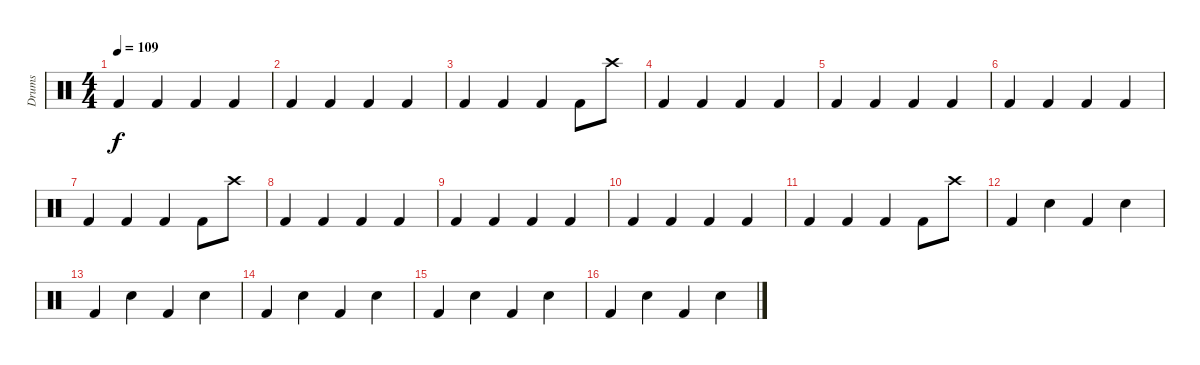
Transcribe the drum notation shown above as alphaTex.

\track ("Drums" "Drums") {instrument percussion}
\staff {score}
\articulation defaults
\ts (4 4)
\tempo 109
\clef neutral
\ks c "Kick (hit) 2".4{dy f} "Kick (hit) 2".4 "Kick (hit) 2".4 "Kick (hit) 2".4
|
"Kick (hit) 2".4 "Kick (hit) 2".4 "Kick (hit) 2".4 "Kick (hit) 2".4 |
"Kick (hit) 2".4 "Kick (hit) 2".4 "Kick (hit) 2".4 "Kick (hit) 2".8 "Crash high (hit)".8 |
"Kick (hit) 2".4 "Kick (hit) 2".4 "Kick (hit) 2".4 "Kick (hit) 2".4 |
"Kick (hit) 2".4 "Kick (hit) 2".4 "Kick (hit) 2".4 "Kick (hit) 2".4 |
"Kick (hit) 2".4 "Kick (hit) 2".4 "Kick (hit) 2".4 "Kick (hit) 2".4 |
"Kick (hit) 2".4 "Kick (hit) 2".4 "Kick (hit) 2".4 "Kick (hit) 2".8 "Crash high (hit)".8 |
"Kick (hit) 2".4 "Kick (hit) 2".4 "Kick (hit) 2".4 "Kick (hit) 2".4 |
"Kick (hit) 2".4 "Kick (hit) 2".4 "Kick (hit) 2".4 "Kick (hit) 2".4 |
"Kick (hit) 2".4 "Kick (hit) 2".4 "Kick (hit) 2".4 "Kick (hit) 2".4 |
"Kick (hit) 2".4 "Kick (hit) 2".4 "Kick (hit) 2".4 "Kick (hit) 2".8 "Crash high (hit)".8 |
"Kick (hit) 2".4 "Snare (hit) 2".4 "Kick (hit) 2".4 "Snare (hit) 2".4 |
"Kick (hit) 2".4 "Snare (hit) 2".4 "Kick (hit) 2".4 "Snare (hit) 2".4 |
"Kick (hit) 2".4 "Snare (hit) 2".4 "Kick (hit) 2".4 "Snare (hit) 2".4 |
"Kick (hit) 2".4 "Snare (hit) 2".4 "Kick (hit) 2".4 "Snare (hit) 2".4 |
"Kick (hit) 2".4 "Snare (hit) 2".4 "Kick (hit) 2".4 "Snare (hit) 2".4
